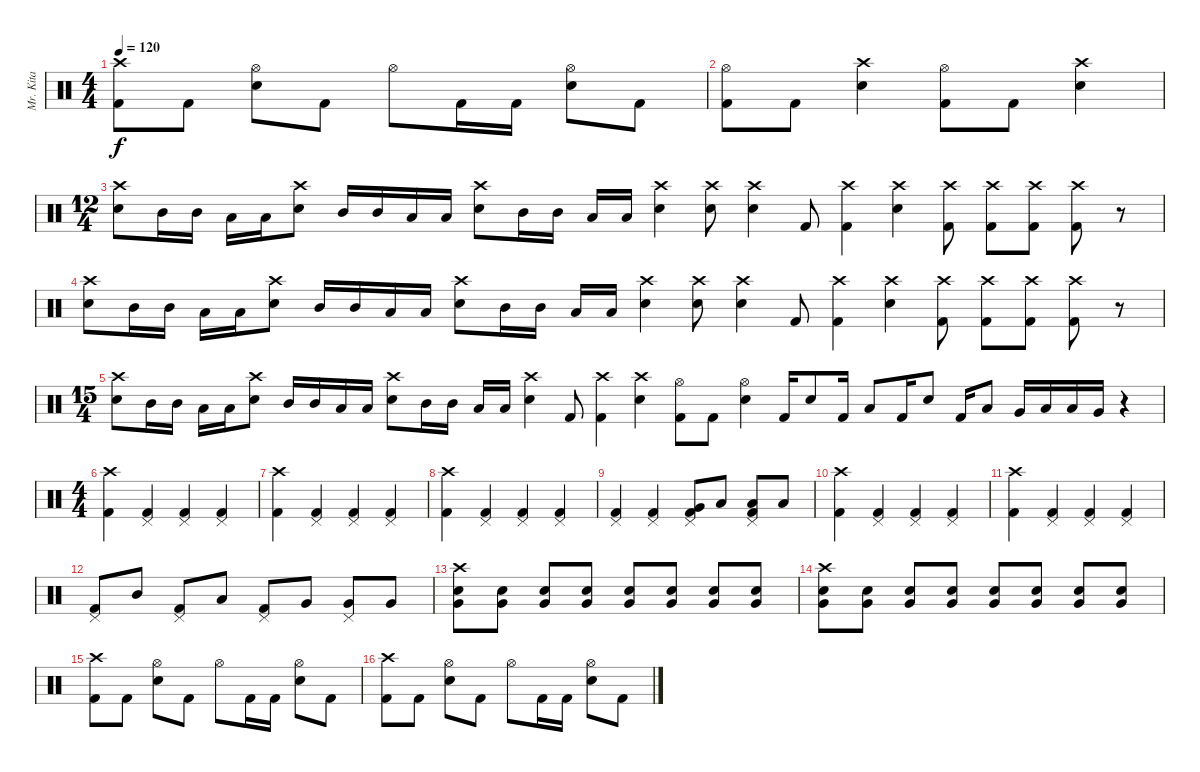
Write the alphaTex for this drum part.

\track ("Mr. Kita" "Mr. Kita") {instrument percussion}
\staff {score}
\articulation defaults
\ts (4 4)
\tempo 120
\clef neutral
\ks c
("Crash high (hit)" "Kick (hit) 2").8{dy f} "Kick (hit) 2".8 ("Hi-Hat (open)" "Snare (hit) 2").8 "Kick (hit) 2".8 "Hi-Hat (open)".8 "Kick (hit) 2".16 "Kick (hit) 2".16 ("Hi-Hat (open)" "Snare (hit) 2").8 "Kick (hit) 2".8 |
("Hi-Hat (open)" "Kick (hit) 2").8 "Kick (hit) 2".8 ("Crash high (hit)" "Snare (hit) 2").4 ("Hi-Hat (open)" "Kick (hit) 2").8 "Kick (hit) 2".8 ("Crash high (hit)" "Snare (hit) 2").4 |
\ts (12 4)
("Crash high (hit)" "Snare (hit) 2").8 "Mid Tom (hit)".16 "Mid Tom (hit)".16 "Low Tom (hit)".16 "Low Tom (hit)".16 ("Crash high (hit)" "Snare (hit) 2").8 "Mid Tom (hit)".16 "Mid Tom (hit)".16 "Low Tom (hit)".16 "Low Tom (hit)".16 ("Crash high (hit)" "Snare (hit) 2").8 "Mid Tom (hit)".16 "Mid Tom (hit)".16 "Low Tom (hit)".16 "Low Tom (hit)".16 ("Crash high (hit)" "Snare (hit) 2").4 ("Crash high (hit)" "Snare (hit) 2").8 ("Crash high (hit)" "Snare (hit) 2").4 "Kick (hit) 2".8 ("Crash high (hit)" "Kick (hit) 2").4 ("Crash high (hit)" "Snare (hit) 2").4 ("Crash high (hit)" "Kick (hit) 2").8 ("Crash high (hit)" "Kick (hit) 2").8 ("Crash high (hit)" "Kick (hit) 2").8 ("Crash high (hit)" "Kick (hit) 2").8 r.8 |
("Crash high (hit)" "Snare (hit) 2").8 "Mid Tom (hit)".16 "Mid Tom (hit)".16 "Low Tom (hit)".16 "Low Tom (hit)".16 ("Crash high (hit)" "Snare (hit) 2").8 "Mid Tom (hit)".16 "Mid Tom (hit)".16 "Low Tom (hit)".16 "Low Tom (hit)".16 ("Crash high (hit)" "Snare (hit) 2").8 "Mid Tom (hit)".16 "Mid Tom (hit)".16 "Low Tom (hit)".16 "Low Tom (hit)".16 ("Crash high (hit)" "Snare (hit) 2").4 ("Crash high (hit)" "Snare (hit) 2").8 ("Crash high (hit)" "Snare (hit) 2").4 "Kick (hit) 2".8 ("Crash high (hit)" "Kick (hit) 2").4 ("Crash high (hit)" "Snare (hit) 2").4 ("Crash high (hit)" "Kick (hit) 2").8 ("Crash high (hit)" "Kick (hit) 2").8 ("Crash high (hit)" "Kick (hit) 2").8 ("Crash high (hit)" "Kick (hit) 2").8 r.8 |
\ts (15 4)
("Crash high (hit)" "Snare (hit) 2").8 "Mid Tom (hit)".16 "Mid Tom (hit)".16 "Low Tom (hit)".16 "Low Tom (hit)".16 ("Crash high (hit)" "Snare (hit) 2").8 "Mid Tom (hit)".16 "Mid Tom (hit)".16 "Low Tom (hit)".16 "Low Tom (hit)".16 ("Crash high (hit)" "Snare (hit) 2").8 "Mid Tom (hit)".16 "Mid Tom (hit)".16 "Low Tom (hit)".16 "Low Tom (hit)".16 ("Crash high (hit)" "Snare (hit) 2").4 "Kick (hit) 2".8 ("Crash high (hit)" "Kick (hit) 2").4 ("Crash high (hit)" "Snare (hit) 2").4 ("Hi-Hat (open)" "Kick (hit) 2").8 "Kick (hit) 2".8 ("Hi-Hat (open)" "Snare (hit) 2").4 "Kick (hit) 2".16 "Snare (hit) 2".8 "Kick (hit) 2".16 "Low Tom (hit)".8 "Kick (hit) 2".16 "Snare (hit) 2".8 "Kick (hit) 2".16 "Low Tom (hit)".8 "Very Low Tom (hit)".16 "Low Tom (hit)".16 "Low Tom (hit)".16 "Very Low Tom (hit)".16 r.4 |
\ts (4 4)
("Crash high (hit)" "Kick (hit) 2").4 ("Pedal Hi-Hat (hit)" "Kick (hit) 2").4 ("Pedal Hi-Hat (hit)" "Kick (hit) 2").4 ("Pedal Hi-Hat (hit)" "Kick (hit) 2").4 |
("Crash high (hit)" "Kick (hit) 2").4 ("Pedal Hi-Hat (hit)" "Kick (hit) 2").4 ("Pedal Hi-Hat (hit)" "Kick (hit) 2").4 ("Pedal Hi-Hat (hit)" "Kick (hit) 2").4 |
("Crash high (hit)" "Kick (hit) 2").4 ("Pedal Hi-Hat (hit)" "Kick (hit) 2").4 ("Pedal Hi-Hat (hit)" "Kick (hit) 2").4 ("Pedal Hi-Hat (hit)" "Kick (hit) 2").4 |
("Pedal Hi-Hat (hit)" "Kick (hit) 2").4 ("Pedal Hi-Hat (hit)" "Kick (hit) 2").4 ("Pedal Hi-Hat (hit)" "Very Low Tom (hit)" "Kick (hit) 2").8 "Low Tom (hit)".8 ("Pedal Hi-Hat (hit)" "Low Tom (hit)" "Kick (hit) 2").8 "Low Tom (hit)".8 |
("Crash high (hit)" "Kick (hit) 2").4 ("Pedal Hi-Hat (hit)" "Kick (hit) 2").4 ("Pedal Hi-Hat (hit)" "Kick (hit) 2").4 ("Pedal Hi-Hat (hit)" "Kick (hit) 2").4 |
("Crash high (hit)" "Kick (hit) 2").4 ("Pedal Hi-Hat (hit)" "Kick (hit) 2").4 ("Pedal Hi-Hat (hit)" "Kick (hit) 2").4 ("Pedal Hi-Hat (hit)" "Kick (hit) 2").4 |
("Pedal Hi-Hat (hit)" "Kick (hit) 2").8 "Mid Tom (hit)".8 ("Pedal Hi-Hat (hit)" "Kick (hit) 2").8 "Low Tom (hit)".8 ("Pedal Hi-Hat (hit)" "Kick (hit) 2").8 "Very Low Tom (hit)".8 ("Pedal Hi-Hat (hit)" "Very Low Tom (hit)").8 "Very Low Tom (hit)".8 |
("Crash high (hit)" "Very Low Tom (hit)" "Snare (hit) 2").8 ("Very Low Tom (hit)" "Snare (hit) 2").8 ("Very Low Tom (hit)" "Snare (hit) 2").8 ("Very Low Tom (hit)" "Snare (hit) 2").8 ("Very Low Tom (hit)" "Snare (hit) 2").8 ("Very Low Tom (hit)" "Snare (hit) 2").8 ("Very Low Tom (hit)" "Snare (hit) 2").8 ("Very Low Tom (hit)" "Snare (hit) 2").8 |
("Crash high (hit)" "Very Low Tom (hit)" "Snare (hit) 2").8 ("Very Low Tom (hit)" "Snare (hit) 2").8 ("Very Low Tom (hit)" "Snare (hit) 2").8 ("Very Low Tom (hit)" "Snare (hit) 2").8 ("Very Low Tom (hit)" "Snare (hit) 2").8 ("Very Low Tom (hit)" "Snare (hit) 2").8 ("Very Low Tom (hit)" "Snare (hit) 2").8 ("Very Low Tom (hit)" "Snare (hit) 2").8 |
("Crash high (hit)" "Kick (hit) 2").8 "Kick (hit) 2".8 ("Hi-Hat (open)" "Snare (hit) 2").8 "Kick (hit) 2".8 "Hi-Hat (open)".8 "Kick (hit) 2".16 "Kick (hit) 2".16 ("Hi-Hat (open)" "Snare (hit) 2").8 "Kick (hit) 2".8 |
("Crash high (hit)" "Kick (hit) 2").8 "Kick (hit) 2".8 ("Hi-Hat (open)" "Snare (hit) 2").8 "Kick (hit) 2".8 "Hi-Hat (open)".8 "Kick (hit) 2".16 "Kick (hit) 2".16 ("Hi-Hat (open)" "Snare (hit) 2").8 "Kick (hit) 2".8
